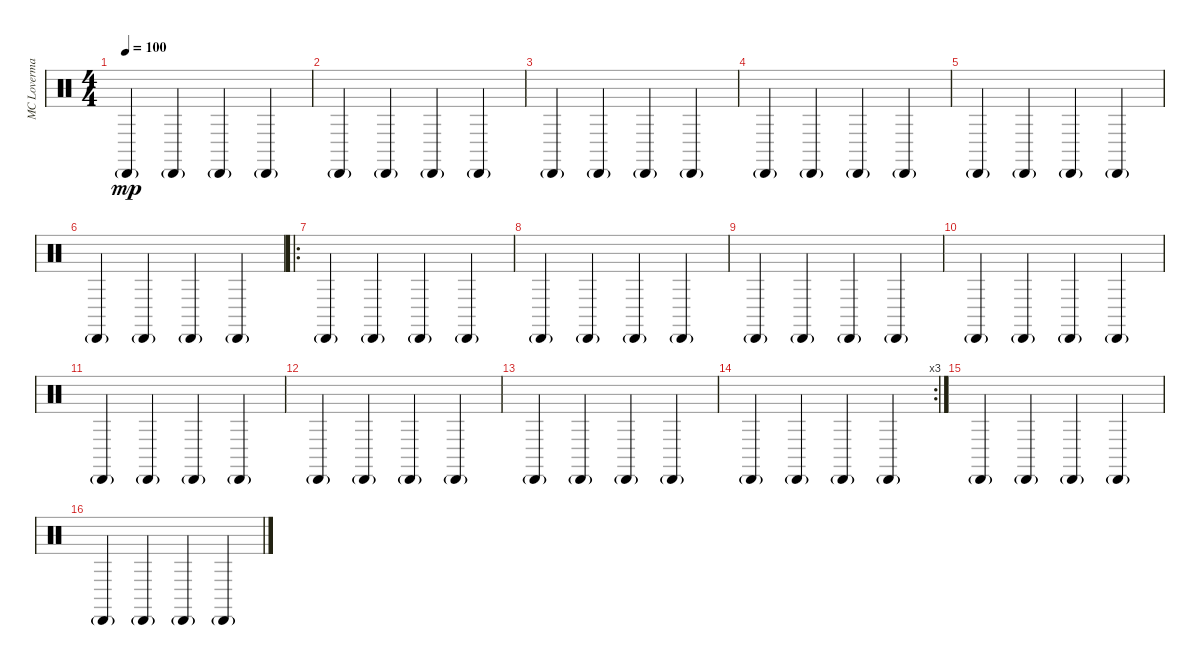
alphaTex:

\track ("MC Loverman" "MC Loverma") {instrument percussion}
\staff {score}
\articulation defaults
\ts (4 4)
\tempo 100
\clef neutral
\ks c "Cabasa (hit)"{g}.4{dy mp} "Cabasa (hit)"{g}.4 "Cabasa (hit)"{g}.4 "Cabasa (hit)"{g}.4
|
"Cabasa (hit)"{g}.4 "Cabasa (hit)"{g}.4 "Cabasa (hit)"{g}.4 "Cabasa (hit)"{g}.4 |
"Cabasa (hit)"{g}.4 "Cabasa (hit)"{g}.4 "Cabasa (hit)"{g}.4 "Cabasa (hit)"{g}.4 |
"Cabasa (hit)"{g}.4 "Cabasa (hit)"{g}.4 "Cabasa (hit)"{g}.4 "Cabasa (hit)"{g}.4 |
"Cabasa (hit)"{g}.4 "Cabasa (hit)"{g}.4 "Cabasa (hit)"{g}.4 "Cabasa (hit)"{g}.4 |
"Cabasa (hit)"{g}.4 "Cabasa (hit)"{g}.4 "Cabasa (hit)"{g}.4 "Cabasa (hit)"{g}.4 |
\ro "Cabasa (hit)"{g}.4 "Cabasa (hit)"{g}.4 "Cabasa (hit)"{g}.4 "Cabasa (hit)"{g}.4
|
"Cabasa (hit)"{g}.4 "Cabasa (hit)"{g}.4 "Cabasa (hit)"{g}.4 "Cabasa (hit)"{g}.4 |
"Cabasa (hit)"{g}.4 "Cabasa (hit)"{g}.4 "Cabasa (hit)"{g}.4 "Cabasa (hit)"{g}.4 |
"Cabasa (hit)"{g}.4 "Cabasa (hit)"{g}.4 "Cabasa (hit)"{g}.4 "Cabasa (hit)"{g}.4 |
"Cabasa (hit)"{g}.4 "Cabasa (hit)"{g}.4 "Cabasa (hit)"{g}.4 "Cabasa (hit)"{g}.4 |
"Cabasa (hit)"{g}.4 "Cabasa (hit)"{g}.4 "Cabasa (hit)"{g}.4 "Cabasa (hit)"{g}.4 |
"Cabasa (hit)"{g}.4 "Cabasa (hit)"{g}.4 "Cabasa (hit)"{g}.4 "Cabasa (hit)"{g}.4 |
\rc 3 "Cabasa (hit)"{g}.4 "Cabasa (hit)"{g}.4 "Cabasa (hit)"{g}.4 "Cabasa (hit)"{g}.4
|
"Cabasa (hit)"{g}.4 "Cabasa (hit)"{g}.4 "Cabasa (hit)"{g}.4 "Cabasa (hit)"{g}.4 |
"Cabasa (hit)"{g}.4 "Cabasa (hit)"{g}.4 "Cabasa (hit)"{g}.4 "Cabasa (hit)"{g}.4
